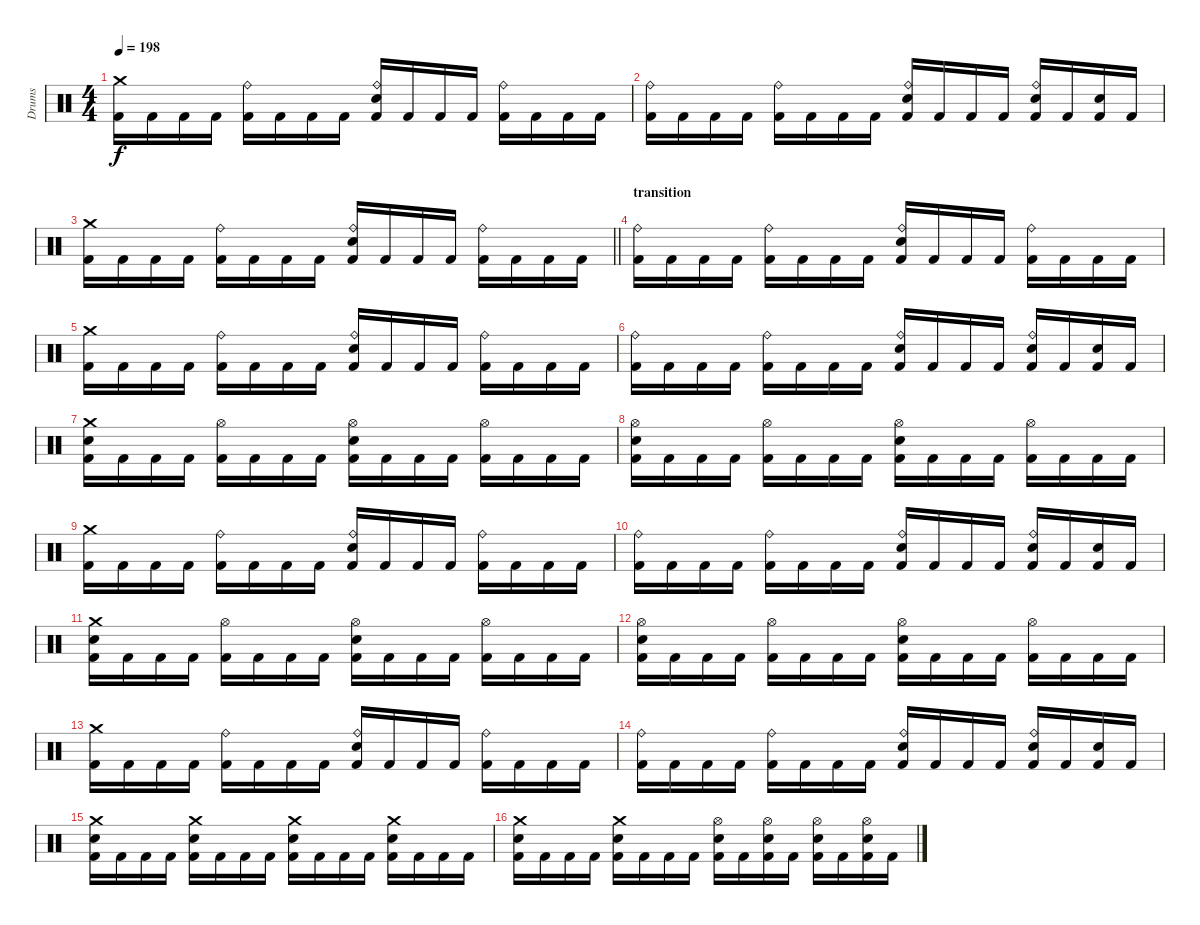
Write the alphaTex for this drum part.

\track ("Drums" "Drums") {instrument percussion}
\staff {score}
\articulation defaults
\ts (4 4)
\tempo 198
\clef neutral
\ks c
("Crash medium (hit)" "Kick (hit) 2").16{dy f} "Kick (hit) 2".16 "Kick (hit) 2".16 "Kick (hit) 2".16 ("Ride (bell)" "Kick (hit) 2").16 "Kick (hit) 2".16 "Kick (hit) 2".16 "Kick (hit) 2".16 ("Ride (bell)" "Snare (hit) 2" "Kick (hit) 2").16 "Kick (hit) 2".16 "Kick (hit) 2".16 "Kick (hit) 2".16 ("Ride (bell)" "Kick (hit) 2").16 "Kick (hit) 2".16 "Kick (hit) 2".16 "Kick (hit) 2".16 |
("Ride (bell)" "Kick (hit) 2").16 "Kick (hit) 2".16 "Kick (hit) 2".16 "Kick (hit) 2".16 ("Ride (bell)" "Kick (hit) 2").16 "Kick (hit) 2".16 "Kick (hit) 2".16 "Kick (hit) 2".16 ("Ride (bell)" "Snare (hit) 2" "Kick (hit) 2").16 "Kick (hit) 2".16 "Kick (hit) 2".16 "Kick (hit) 2".16 ("Ride (bell)" "Snare (hit) 2" "Kick (hit) 2").16 "Kick (hit) 2".16 ("Snare (hit) 2" "Kick (hit) 2").16 "Kick (hit) 2".16 |
\barLineRight lightlight
("Crash medium (hit)" "Kick (hit) 2").16 "Kick (hit) 2".16 "Kick (hit) 2".16 "Kick (hit) 2".16 ("Ride (bell)" "Kick (hit) 2").16 "Kick (hit) 2".16 "Kick (hit) 2".16 "Kick (hit) 2".16 ("Ride (bell)" "Snare (hit) 2" "Kick (hit) 2").16 "Kick (hit) 2".16 "Kick (hit) 2".16 "Kick (hit) 2".16 ("Ride (bell)" "Kick (hit) 2").16 "Kick (hit) 2".16 "Kick (hit) 2".16 "Kick (hit) 2".16 |
\section ("" "transition")
("Ride (bell)" "Kick (hit) 2").16 "Kick (hit) 2".16 "Kick (hit) 2".16 "Kick (hit) 2".16 ("Ride (bell)" "Kick (hit) 2").16 "Kick (hit) 2".16 "Kick (hit) 2".16 "Kick (hit) 2".16 ("Ride (bell)" "Snare (hit) 2" "Kick (hit) 2").16 "Kick (hit) 2".16 "Kick (hit) 2".16 "Kick (hit) 2".16 ("Ride (bell)" "Kick (hit) 2").16 "Kick (hit) 2".16 "Kick (hit) 2".16 "Kick (hit) 2".16 |
("Crash medium (hit)" "Kick (hit) 2").16 "Kick (hit) 2".16 "Kick (hit) 2".16 "Kick (hit) 2".16 ("Ride (bell)" "Kick (hit) 2").16 "Kick (hit) 2".16 "Kick (hit) 2".16 "Kick (hit) 2".16 ("Ride (bell)" "Snare (hit) 2" "Kick (hit) 2").16 "Kick (hit) 2".16 "Kick (hit) 2".16 "Kick (hit) 2".16 ("Ride (bell)" "Kick (hit) 2").16 "Kick (hit) 2".16 "Kick (hit) 2".16 "Kick (hit) 2".16 |
("Ride (bell)" "Kick (hit) 2").16 "Kick (hit) 2".16 "Kick (hit) 2".16 "Kick (hit) 2".16 ("Ride (bell)" "Kick (hit) 2").16 "Kick (hit) 2".16 "Kick (hit) 2".16 "Kick (hit) 2".16 ("Ride (bell)" "Snare (hit) 2" "Kick (hit) 2").16 "Kick (hit) 2".16 "Kick (hit) 2".16 "Kick (hit) 2".16 ("Ride (bell)" "Snare (hit) 2" "Kick (hit) 2").16 "Kick (hit) 2".16 ("Snare (hit) 2" "Kick (hit) 2").16 "Kick (hit) 2".16 |
("Crash medium (hit)" "Snare (hit) 2" "Kick (hit) 2").16 "Kick (hit) 2".16 "Kick (hit) 2".16 "Kick (hit) 2".16 ("Hi-Hat (open)" "Kick (hit) 2").16 "Kick (hit) 2".16 "Kick (hit) 2".16 "Kick (hit) 2".16 ("Hi-Hat (open)" "Snare (hit) 2" "Kick (hit) 2").16 "Kick (hit) 2".16 "Kick (hit) 2".16 "Kick (hit) 2".16 ("Hi-Hat (open)" "Kick (hit) 2").16 "Kick (hit) 2".16 "Kick (hit) 2".16 "Kick (hit) 2".16 |
("Hi-Hat (open)" "Snare (hit) 2" "Kick (hit) 2").16 "Kick (hit) 2".16 "Kick (hit) 2".16 "Kick (hit) 2".16 ("Hi-Hat (open)" "Kick (hit) 2").16 "Kick (hit) 2".16 "Kick (hit) 2".16 "Kick (hit) 2".16 ("Hi-Hat (open)" "Snare (hit) 2" "Kick (hit) 2").16 "Kick (hit) 2".16 "Kick (hit) 2".16 "Kick (hit) 2".16 ("Hi-Hat (open)" "Kick (hit) 2").16 "Kick (hit) 2".16 "Kick (hit) 2".16 "Kick (hit) 2".16 |
("Crash medium (hit)" "Kick (hit) 2").16 "Kick (hit) 2".16 "Kick (hit) 2".16 "Kick (hit) 2".16 ("Ride (bell)" "Kick (hit) 2").16 "Kick (hit) 2".16 "Kick (hit) 2".16 "Kick (hit) 2".16 ("Ride (bell)" "Snare (hit) 2" "Kick (hit) 2").16 "Kick (hit) 2".16 "Kick (hit) 2".16 "Kick (hit) 2".16 ("Ride (bell)" "Kick (hit) 2").16 "Kick (hit) 2".16 "Kick (hit) 2".16 "Kick (hit) 2".16 |
("Ride (bell)" "Kick (hit) 2").16 "Kick (hit) 2".16 "Kick (hit) 2".16 "Kick (hit) 2".16 ("Ride (bell)" "Kick (hit) 2").16 "Kick (hit) 2".16 "Kick (hit) 2".16 "Kick (hit) 2".16 ("Ride (bell)" "Snare (hit) 2" "Kick (hit) 2").16 "Kick (hit) 2".16 "Kick (hit) 2".16 "Kick (hit) 2".16 ("Ride (bell)" "Snare (hit) 2" "Kick (hit) 2").16 "Kick (hit) 2".16 ("Snare (hit) 2" "Kick (hit) 2").16 "Kick (hit) 2".16 |
("Crash medium (hit)" "Snare (hit) 2" "Kick (hit) 2").16 "Kick (hit) 2".16 "Kick (hit) 2".16 "Kick (hit) 2".16 ("Hi-Hat (open)" "Kick (hit) 2").16 "Kick (hit) 2".16 "Kick (hit) 2".16 "Kick (hit) 2".16 ("Hi-Hat (open)" "Snare (hit) 2" "Kick (hit) 2").16 "Kick (hit) 2".16 "Kick (hit) 2".16 "Kick (hit) 2".16 ("Hi-Hat (open)" "Kick (hit) 2").16 "Kick (hit) 2".16 "Kick (hit) 2".16 "Kick (hit) 2".16 |
("Hi-Hat (open)" "Snare (hit) 2" "Kick (hit) 2").16 "Kick (hit) 2".16 "Kick (hit) 2".16 "Kick (hit) 2".16 ("Hi-Hat (open)" "Kick (hit) 2").16 "Kick (hit) 2".16 "Kick (hit) 2".16 "Kick (hit) 2".16 ("Hi-Hat (open)" "Snare (hit) 2" "Kick (hit) 2").16 "Kick (hit) 2".16 "Kick (hit) 2".16 "Kick (hit) 2".16 ("Hi-Hat (open)" "Kick (hit) 2").16 "Kick (hit) 2".16 "Kick (hit) 2".16 "Kick (hit) 2".16 |
("Crash medium (hit)" "Kick (hit) 2").16 "Kick (hit) 2".16 "Kick (hit) 2".16 "Kick (hit) 2".16 ("Ride (bell)" "Kick (hit) 2").16 "Kick (hit) 2".16 "Kick (hit) 2".16 "Kick (hit) 2".16 ("Ride (bell)" "Snare (hit) 2" "Kick (hit) 2").16 "Kick (hit) 2".16 "Kick (hit) 2".16 "Kick (hit) 2".16 ("Ride (bell)" "Kick (hit) 2").16 "Kick (hit) 2".16 "Kick (hit) 2".16 "Kick (hit) 2".16 |
("Ride (bell)" "Kick (hit) 2").16 "Kick (hit) 2".16 "Kick (hit) 2".16 "Kick (hit) 2".16 ("Ride (bell)" "Kick (hit) 2").16 "Kick (hit) 2".16 "Kick (hit) 2".16 "Kick (hit) 2".16 ("Ride (bell)" "Snare (hit) 2" "Kick (hit) 2").16 "Kick (hit) 2".16 "Kick (hit) 2".16 "Kick (hit) 2".16 ("Ride (bell)" "Snare (hit) 2" "Kick (hit) 2").16 "Kick (hit) 2".16 ("Snare (hit) 2" "Kick (hit) 2").16 "Kick (hit) 2".16 |
("Crash medium (hit)" "Snare (hit) 2" "Kick (hit) 2").16 "Kick (hit) 2".16 "Kick (hit) 2".16 "Kick (hit) 2".16 ("Crash medium (hit)" "Snare (hit) 2" "Kick (hit) 2").16 "Kick (hit) 2".16 "Kick (hit) 2".16 "Kick (hit) 2".16 ("Crash medium (hit)" "Snare (hit) 2" "Kick (hit) 2").16 "Kick (hit) 2".16 "Kick (hit) 2".16 "Kick (hit) 2".16 ("Crash medium (hit)" "Snare (hit) 2" "Kick (hit) 2").16 "Kick (hit) 2".16 "Kick (hit) 2".16 "Kick (hit) 2".16 |
("Crash medium (hit)" "Snare (hit) 2" "Kick (hit) 2").16 "Kick (hit) 2".16 "Kick (hit) 2".16 "Kick (hit) 2".16 ("Crash medium (hit)" "Snare (hit) 2" "Kick (hit) 2").16 "Kick (hit) 2".16 "Kick (hit) 2".16 "Kick (hit) 2".16 ("Hi-Hat (open)" "Snare (hit) 2" "Kick (hit) 2").16 "Kick (hit) 2".16 ("Hi-Hat (open)" "Snare (hit) 2" "Kick (hit) 2").16 "Kick (hit) 2".16 ("Hi-Hat (open)" "Snare (hit) 2" "Kick (hit) 2").16 "Kick (hit) 2".16 ("Hi-Hat (open)" "Snare (hit) 2" "Kick (hit) 2").16 "Kick (hit) 2".16
